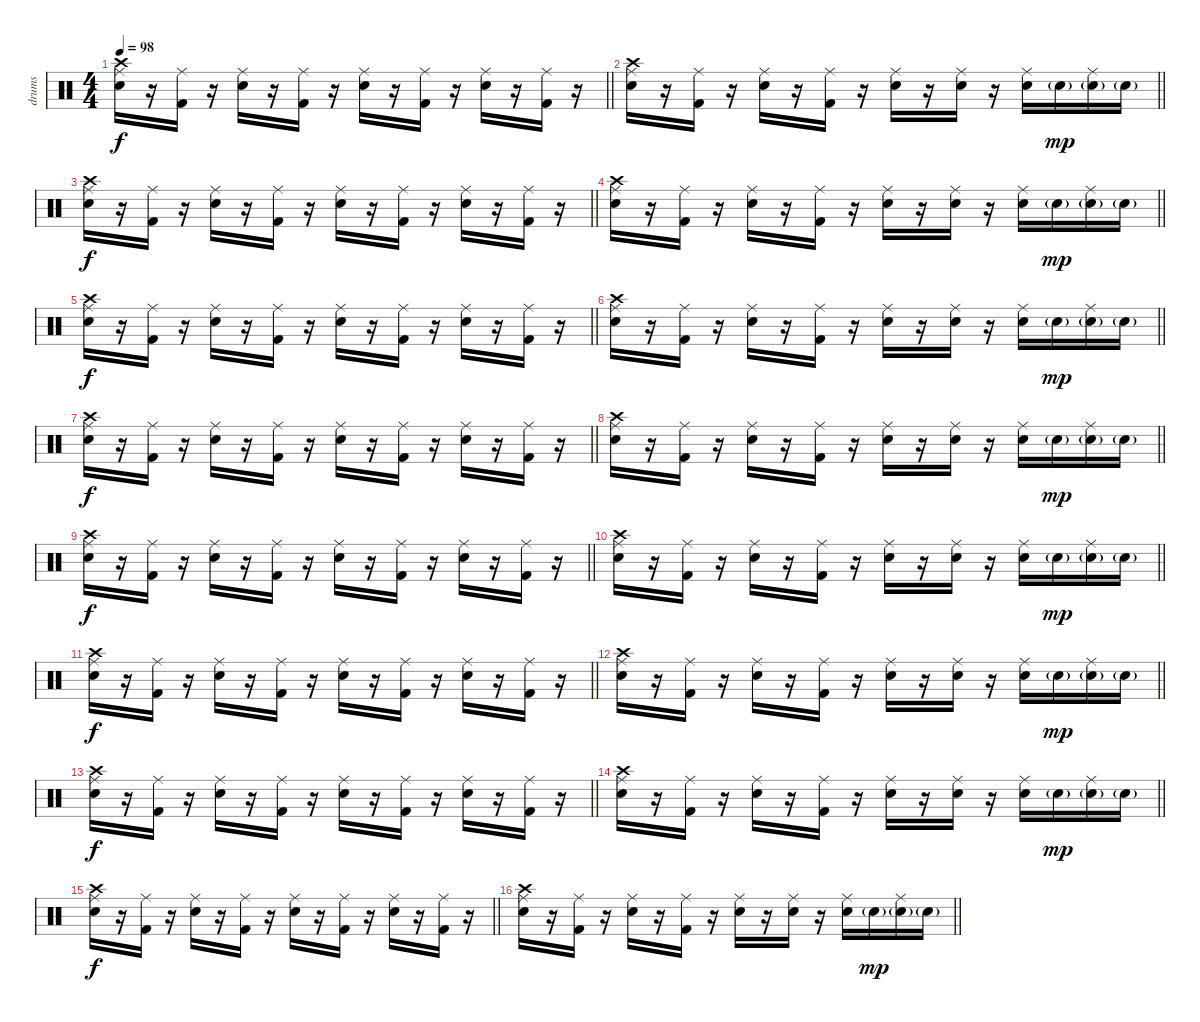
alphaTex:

\track ("drums" "drums") {instrument percussion}
\staff {score}
\articulation defaults
\ts (4 4)
\tempo 98
\clef neutral
\barLineRight lightlight
\ks c
("Electric Snare (hit)" "Ride (middle)" "Crash high (hit)").16{dy f} r.16 ("Kick (hit) 2" "Ride (middle)").16 r.16 ("Electric Snare (hit)" "Ride (middle)").16 r.16 ("Kick (hit) 2" "Ride (middle)").16 r.16 ("Electric Snare (hit)" "Ride (middle)").16 r.16 ("Kick (hit) 2" "Ride (middle)").16 r.16 ("Electric Snare (hit)" "Ride (middle)").16 r.16 ("Kick (hit) 2" "Ride (middle)").16 r.16 |
\barLineRight lightlight
("Electric Snare (hit)" "Ride (middle)" "Crash high (hit)").16 r.16 ("Kick (hit) 2" "Ride (middle)").16 r.16 ("Electric Snare (hit)" "Ride (middle)").16 r.16 ("Kick (hit) 2" "Ride (middle)").16 r.16 ("Electric Snare (hit)" "Ride (middle)").16 r.16 ("Electric Snare (hit)" "Ride (middle)").16 r.16 ("Electric Snare (hit)" "Ride (middle)").16 "Electric Snare (hit)"{g}.16{dy mp} ("Electric Snare (hit)"{g} "Ride (middle)").16 "Electric Snare (hit)"{g}.16 |
\barLineRight lightlight
("Electric Snare (hit)" "Ride (middle)" "Crash high (hit)").16{dy f} r.16 ("Kick (hit) 2" "Ride (middle)").16 r.16 ("Electric Snare (hit)" "Ride (middle)").16 r.16 ("Kick (hit) 2" "Ride (middle)").16 r.16 ("Electric Snare (hit)" "Ride (middle)").16 r.16 ("Kick (hit) 2" "Ride (middle)").16 r.16 ("Electric Snare (hit)" "Ride (middle)").16 r.16 ("Kick (hit) 2" "Ride (middle)").16 r.16 |
\barLineRight lightlight
("Electric Snare (hit)" "Ride (middle)" "Crash high (hit)").16 r.16 ("Kick (hit) 2" "Ride (middle)").16 r.16 ("Electric Snare (hit)" "Ride (middle)").16 r.16 ("Kick (hit) 2" "Ride (middle)").16 r.16 ("Electric Snare (hit)" "Ride (middle)").16 r.16 ("Electric Snare (hit)" "Ride (middle)").16 r.16 ("Electric Snare (hit)" "Ride (middle)").16 "Electric Snare (hit)"{g}.16{dy mp} ("Electric Snare (hit)"{g} "Ride (middle)").16 "Electric Snare (hit)"{g}.16 |
\barLineRight lightlight
("Electric Snare (hit)" "Ride (middle)" "Crash high (hit)").16{dy f} r.16 ("Kick (hit) 2" "Ride (middle)").16 r.16 ("Electric Snare (hit)" "Ride (middle)").16 r.16 ("Kick (hit) 2" "Ride (middle)").16 r.16 ("Electric Snare (hit)" "Ride (middle)").16 r.16 ("Kick (hit) 2" "Ride (middle)").16 r.16 ("Electric Snare (hit)" "Ride (middle)").16 r.16 ("Kick (hit) 2" "Ride (middle)").16 r.16 |
\barLineRight lightlight
("Electric Snare (hit)" "Ride (middle)" "Crash high (hit)").16 r.16 ("Kick (hit) 2" "Ride (middle)").16 r.16 ("Electric Snare (hit)" "Ride (middle)").16 r.16 ("Kick (hit) 2" "Ride (middle)").16 r.16 ("Electric Snare (hit)" "Ride (middle)").16 r.16 ("Electric Snare (hit)" "Ride (middle)").16 r.16 ("Electric Snare (hit)" "Ride (middle)").16 "Electric Snare (hit)"{g}.16{dy mp} ("Electric Snare (hit)"{g} "Ride (middle)").16 "Electric Snare (hit)"{g}.16 |
\barLineRight lightlight
("Electric Snare (hit)" "Ride (middle)" "Crash high (hit)").16{dy f} r.16 ("Kick (hit) 2" "Ride (middle)").16 r.16 ("Electric Snare (hit)" "Ride (middle)").16 r.16 ("Kick (hit) 2" "Ride (middle)").16 r.16 ("Electric Snare (hit)" "Ride (middle)").16 r.16 ("Kick (hit) 2" "Ride (middle)").16 r.16 ("Electric Snare (hit)" "Ride (middle)").16 r.16 ("Kick (hit) 2" "Ride (middle)").16 r.16 |
\barLineRight lightlight
("Electric Snare (hit)" "Ride (middle)" "Crash high (hit)").16 r.16 ("Kick (hit) 2" "Ride (middle)").16 r.16 ("Electric Snare (hit)" "Ride (middle)").16 r.16 ("Kick (hit) 2" "Ride (middle)").16 r.16 ("Electric Snare (hit)" "Ride (middle)").16 r.16 ("Electric Snare (hit)" "Ride (middle)").16 r.16 ("Electric Snare (hit)" "Ride (middle)").16 "Electric Snare (hit)"{g}.16{dy mp} ("Electric Snare (hit)"{g} "Ride (middle)").16 "Electric Snare (hit)"{g}.16 |
\barLineRight lightlight
("Electric Snare (hit)" "Ride (middle)" "Crash high (hit)").16{dy f} r.16 ("Kick (hit) 2" "Ride (middle)").16 r.16 ("Electric Snare (hit)" "Ride (middle)").16 r.16 ("Kick (hit) 2" "Ride (middle)").16 r.16 ("Electric Snare (hit)" "Ride (middle)").16 r.16 ("Kick (hit) 2" "Ride (middle)").16 r.16 ("Electric Snare (hit)" "Ride (middle)").16 r.16 ("Kick (hit) 2" "Ride (middle)").16 r.16 |
\barLineRight lightlight
("Electric Snare (hit)" "Ride (middle)" "Crash high (hit)").16 r.16 ("Kick (hit) 2" "Ride (middle)").16 r.16 ("Electric Snare (hit)" "Ride (middle)").16 r.16 ("Kick (hit) 2" "Ride (middle)").16 r.16 ("Electric Snare (hit)" "Ride (middle)").16 r.16 ("Electric Snare (hit)" "Ride (middle)").16 r.16 ("Electric Snare (hit)" "Ride (middle)").16 "Electric Snare (hit)"{g}.16{dy mp} ("Electric Snare (hit)"{g} "Ride (middle)").16 "Electric Snare (hit)"{g}.16 |
\barLineRight lightlight
("Electric Snare (hit)" "Ride (middle)" "Crash high (hit)").16{dy f} r.16 ("Kick (hit) 2" "Ride (middle)").16 r.16 ("Electric Snare (hit)" "Ride (middle)").16 r.16 ("Kick (hit) 2" "Ride (middle)").16 r.16 ("Electric Snare (hit)" "Ride (middle)").16 r.16 ("Kick (hit) 2" "Ride (middle)").16 r.16 ("Electric Snare (hit)" "Ride (middle)").16 r.16 ("Kick (hit) 2" "Ride (middle)").16 r.16 |
\barLineRight lightlight
("Electric Snare (hit)" "Ride (middle)" "Crash high (hit)").16 r.16 ("Kick (hit) 2" "Ride (middle)").16 r.16 ("Electric Snare (hit)" "Ride (middle)").16 r.16 ("Kick (hit) 2" "Ride (middle)").16 r.16 ("Electric Snare (hit)" "Ride (middle)").16 r.16 ("Electric Snare (hit)" "Ride (middle)").16 r.16 ("Electric Snare (hit)" "Ride (middle)").16 "Electric Snare (hit)"{g}.16{dy mp} ("Electric Snare (hit)"{g} "Ride (middle)").16 "Electric Snare (hit)"{g}.16 |
\barLineRight lightlight
("Electric Snare (hit)" "Ride (middle)" "Crash high (hit)").16{dy f} r.16 ("Kick (hit) 2" "Ride (middle)").16 r.16 ("Electric Snare (hit)" "Ride (middle)").16 r.16 ("Kick (hit) 2" "Ride (middle)").16 r.16 ("Electric Snare (hit)" "Ride (middle)").16 r.16 ("Kick (hit) 2" "Ride (middle)").16 r.16 ("Electric Snare (hit)" "Ride (middle)").16 r.16 ("Kick (hit) 2" "Ride (middle)").16 r.16 |
\barLineRight lightlight
("Electric Snare (hit)" "Ride (middle)" "Crash high (hit)").16 r.16 ("Kick (hit) 2" "Ride (middle)").16 r.16 ("Electric Snare (hit)" "Ride (middle)").16 r.16 ("Kick (hit) 2" "Ride (middle)").16 r.16 ("Electric Snare (hit)" "Ride (middle)").16 r.16 ("Electric Snare (hit)" "Ride (middle)").16 r.16 ("Electric Snare (hit)" "Ride (middle)").16 "Electric Snare (hit)"{g}.16{dy mp} ("Electric Snare (hit)"{g} "Ride (middle)").16 "Electric Snare (hit)"{g}.16 |
\barLineRight lightlight
("Electric Snare (hit)" "Ride (middle)" "Crash high (hit)").16{dy f} r.16 ("Kick (hit) 2" "Ride (middle)").16 r.16 ("Electric Snare (hit)" "Ride (middle)").16 r.16 ("Kick (hit) 2" "Ride (middle)").16 r.16 ("Electric Snare (hit)" "Ride (middle)").16 r.16 ("Kick (hit) 2" "Ride (middle)").16 r.16 ("Electric Snare (hit)" "Ride (middle)").16 r.16 ("Kick (hit) 2" "Ride (middle)").16 r.16 |
\barLineRight lightlight
("Electric Snare (hit)" "Ride (middle)" "Crash high (hit)").16 r.16 ("Kick (hit) 2" "Ride (middle)").16 r.16 ("Electric Snare (hit)" "Ride (middle)").16 r.16 ("Kick (hit) 2" "Ride (middle)").16 r.16 ("Electric Snare (hit)" "Ride (middle)").16 r.16 ("Electric Snare (hit)" "Ride (middle)").16 r.16 ("Electric Snare (hit)" "Ride (middle)").16 "Electric Snare (hit)"{g}.16{dy mp} ("Electric Snare (hit)"{g} "Ride (middle)").16 "Electric Snare (hit)"{g}.16
